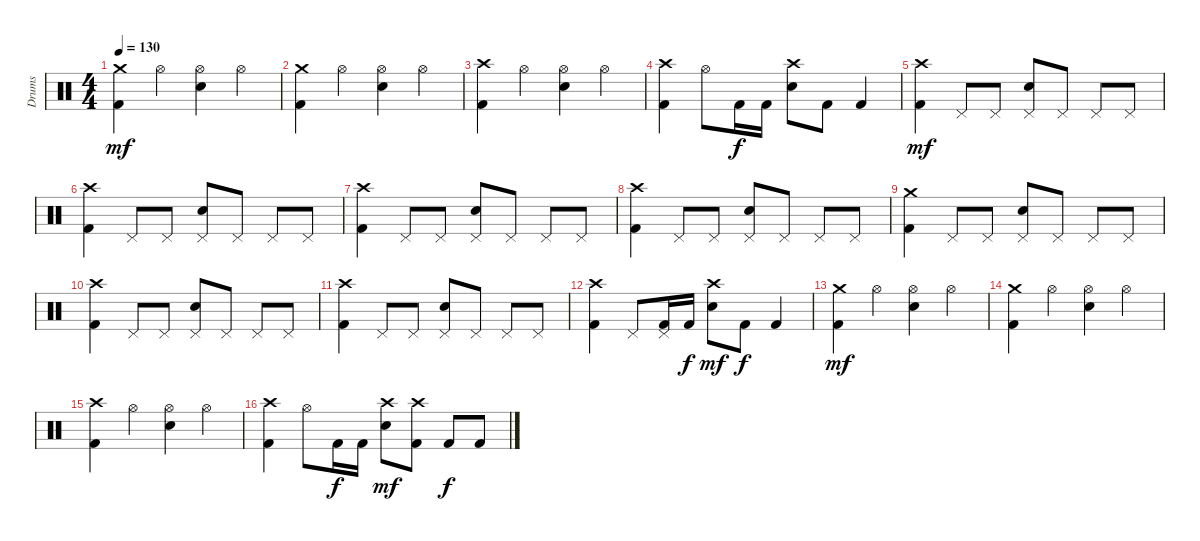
\track ("Drums" "Drums") {instrument percussion}
\staff {score}
\articulation defaults
\ts (4 4)
\tempo 130
\clef neutral
\ks c
("Kick (hit) 2" "Crash medium (hit)").4{dy mf} "Hi-Hat (open)".4 ("Electric Snare (hit)" "Hi-Hat (open)").4 "Hi-Hat (open)".4 |
("Kick (hit) 2" "Crash medium (hit)").4 "Hi-Hat (open)".4 ("Electric Snare (hit)" "Hi-Hat (open)").4 "Hi-Hat (open)".4 |
("Kick (hit) 2" "Crash high (hit)").4 "Hi-Hat (open)".4 ("Electric Snare (hit)" "Hi-Hat (open)").4 "Hi-Hat (open)".4 |
("Kick (hit) 2" "Crash high (hit)").4 "Hi-Hat (open)".8 "Kick (hit) 2".16{dy f} "Kick (hit) 2".16 ("Electric Snare (hit)" "Crash high (hit)").8 "Kick (hit) 2".8 "Kick (hit) 2".4 |
("Kick (hit) 2" "Crash high (hit)").4{dy mf} "Pedal Hi-Hat (hit)".8 "Pedal Hi-Hat (hit)".8 ("Electric Snare (hit)" "Pedal Hi-Hat (hit)").8 "Pedal Hi-Hat (hit)".8 "Pedal Hi-Hat (hit)".8 "Pedal Hi-Hat (hit)".8 |
("Kick (hit) 2" "Crash high (hit)").4 "Pedal Hi-Hat (hit)".8 "Pedal Hi-Hat (hit)".8 ("Electric Snare (hit)" "Pedal Hi-Hat (hit)").8 "Pedal Hi-Hat (hit)".8 "Pedal Hi-Hat (hit)".8 "Pedal Hi-Hat (hit)".8 |
("Kick (hit) 2" "Crash high (hit)").4 "Pedal Hi-Hat (hit)".8 "Pedal Hi-Hat (hit)".8 ("Electric Snare (hit)" "Pedal Hi-Hat (hit)").8 "Pedal Hi-Hat (hit)".8 "Pedal Hi-Hat (hit)".8 "Pedal Hi-Hat (hit)".8 |
("Kick (hit) 2" "Crash high (hit)").4 "Pedal Hi-Hat (hit)".8 "Pedal Hi-Hat (hit)".8 ("Electric Snare (hit)" "Pedal Hi-Hat (hit)").8 "Pedal Hi-Hat (hit)".8 "Pedal Hi-Hat (hit)".8 "Pedal Hi-Hat (hit)".8 |
("Kick (hit) 2" "Crash medium (hit)").4 "Pedal Hi-Hat (hit)".8 "Pedal Hi-Hat (hit)".8 ("Electric Snare (hit)" "Pedal Hi-Hat (hit)").8 "Pedal Hi-Hat (hit)".8 "Pedal Hi-Hat (hit)".8 "Pedal Hi-Hat (hit)".8 |
("Kick (hit) 2" "Crash high (hit)").4 "Pedal Hi-Hat (hit)".8 "Pedal Hi-Hat (hit)".8 ("Electric Snare (hit)" "Pedal Hi-Hat (hit)").8 "Pedal Hi-Hat (hit)".8 "Pedal Hi-Hat (hit)".8 "Pedal Hi-Hat (hit)".8 |
("Kick (hit) 2" "Crash high (hit)").4 "Pedal Hi-Hat (hit)".8 "Pedal Hi-Hat (hit)".8 ("Electric Snare (hit)" "Pedal Hi-Hat (hit)").8 "Pedal Hi-Hat (hit)".8 "Pedal Hi-Hat (hit)".8 "Pedal Hi-Hat (hit)".8 |
("Kick (hit) 2" "Crash high (hit)").4 "Pedal Hi-Hat (hit)".8 ("Kick (hit) 2" "Pedal Hi-Hat (hit)").16 "Kick (hit) 2".16{dy f} ("Electric Snare (hit)" "Crash high (hit)").8{dy mf} "Kick (hit) 2".8{dy f} "Kick (hit) 2".4 |
("Kick (hit) 2" "Crash medium (hit)").4{dy mf} "Hi-Hat (open)".4 ("Electric Snare (hit)" "Hi-Hat (open)").4 "Hi-Hat (open)".4 |
("Kick (hit) 2" "Crash medium (hit)").4 "Hi-Hat (open)".4 ("Electric Snare (hit)" "Hi-Hat (open)").4 "Hi-Hat (open)".4 |
("Kick (hit) 2" "Crash high (hit)").4 "Hi-Hat (open)".4 ("Electric Snare (hit)" "Hi-Hat (open)").4 "Hi-Hat (open)".4 |
("Kick (hit) 2" "Crash high (hit)").4 "Hi-Hat (open)".8 "Kick (hit) 2".16{dy f} "Kick (hit) 2".16 ("Electric Snare (hit)" "Crash high (hit)").8{dy mf} ("Kick (hit) 2" "Crash high (hit)").8 "Kick (hit) 2".8{dy f} "Kick (hit) 2".8
